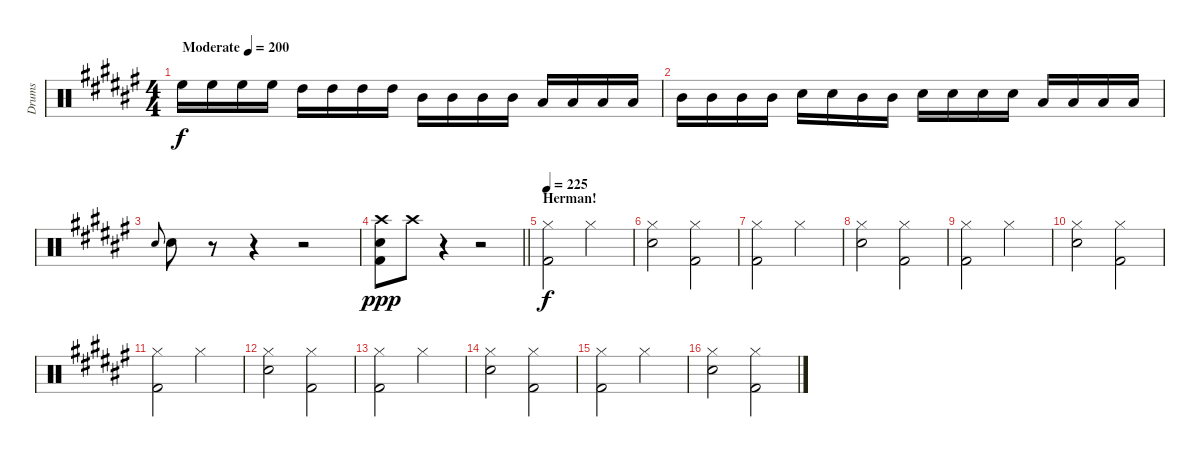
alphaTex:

\track ("Drums" "Drums") {instrument percussion}
\staff {score}
\articulation defaults
\ts (4 4)
\tempo (200 "Moderate")
\clef neutral
\ks f# "High Floor Tom (hit)".16{dy f volume 0} "High Floor Tom (hit)".16{volume 16} "High Floor Tom (hit)".16 "High Floor Tom (hit)".16 "High Tom (hit)".16 "High Tom (hit)".16 "High Tom (hit)".16 "High Tom (hit)".16 "Mid Tom (hit)".16 "Mid Tom (hit)".16 "Mid Tom (hit)".16 "Mid Tom (hit)".16 "Low Tom (hit)".16 "Low Tom (hit)".16 "Low Tom (hit)".16 "Low Tom (hit)".16
|
"Mid Tom (hit)".16 "Mid Tom (hit)".16 "Mid Tom (hit)".16 "Mid Tom (hit)".16 "Snare (hit) 2".16 "Snare (hit) 2".16 "Mid Tom (hit)".16 "Mid Tom (hit)".16 "Snare (hit) 2".16 "Snare (hit) 2".16 "Snare (hit) 2".16 "Snare (hit) 2".16 "Low Tom (hit)".16 "Low Tom (hit)".16 "Low Tom (hit)".16 "Low Tom (hit)".16 |
"Snare (hit) 2".8{gr onbeat} "Snare (hit) 2".8 r.8 r.4 r.2 |
\barLineRight lightlight
("Crash high (hit)" "Snare (hit) 2" "Kick (hit) 2").8{dy ppp} "Crash high (hit)".8 r.4 r.2 |
\section ("" "Herman!")
\tempo 225
("Hi-Hat (closed)" "Kick (hit) 2").2{dy f} "Hi-Hat (closed)".2 |
("Hi-Hat (closed)" "Snare (hit) 2").2 ("Hi-Hat (closed)" "Kick (hit) 2").2 |
("Hi-Hat (closed)" "Kick (hit) 2").2 "Hi-Hat (closed)".2 |
("Hi-Hat (closed)" "Snare (hit) 2").2 ("Hi-Hat (closed)" "Kick (hit) 2").2 |
("Hi-Hat (closed)" "Kick (hit) 2").2 "Hi-Hat (closed)".2 |
("Hi-Hat (closed)" "Snare (hit) 2").2 ("Hi-Hat (closed)" "Kick (hit) 2").2 |
("Hi-Hat (closed)" "Kick (hit) 2").2 "Hi-Hat (closed)".2 |
("Hi-Hat (closed)" "Snare (hit) 2").2 ("Hi-Hat (closed)" "Kick (hit) 2").2 |
("Hi-Hat (closed)" "Kick (hit) 2").2 "Hi-Hat (closed)".2 |
("Hi-Hat (closed)" "Snare (hit) 2").2 ("Hi-Hat (closed)" "Kick (hit) 2").2 |
("Hi-Hat (closed)" "Kick (hit) 2").2 "Hi-Hat (closed)".2 |
("Hi-Hat (closed)" "Snare (hit) 2").2 ("Hi-Hat (closed)" "Kick (hit) 2").2
